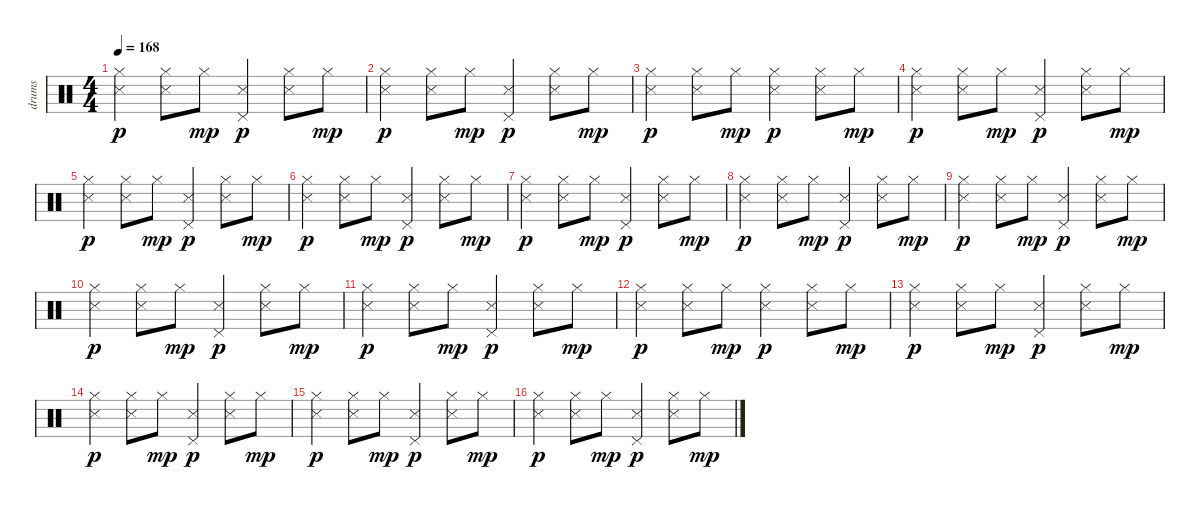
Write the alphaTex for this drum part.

\track ("drums" "drums") {instrument percussion}
\staff {score}
\articulation defaults
\ts (4 4)
\tempo 168
\clef neutral
\ks c
("Hi-Hat (closed)" "Snare (side stick) 3").4{dy p} ("Hi-Hat (closed)" "Snare (side stick) 3").8 "Hi-Hat (closed)".8{dy mp} ("Pedal Hi-Hat (hit)" "Snare (side stick) 3").4{dy p} ("Hi-Hat (closed)" "Snare (side stick) 3").8 "Hi-Hat (closed)".8{dy mp} |
("Hi-Hat (closed)" "Snare (side stick) 3").4{dy p} ("Hi-Hat (closed)" "Snare (side stick) 3").8 "Hi-Hat (closed)".8{dy mp} ("Pedal Hi-Hat (hit)" "Snare (side stick) 3").4{dy p} ("Hi-Hat (closed)" "Snare (side stick) 3").8 "Hi-Hat (closed)".8{dy mp} |
("Hi-Hat (closed)" "Snare (side stick) 3").4{dy p} ("Hi-Hat (closed)" "Snare (side stick) 3").8 "Hi-Hat (closed)".8{dy mp} ("Hi-Hat (closed)" "Snare (side stick) 3").4{dy p} ("Hi-Hat (closed)" "Snare (side stick) 3").8 "Hi-Hat (closed)".8{dy mp} |
("Hi-Hat (closed)" "Snare (side stick) 3").4{dy p} ("Hi-Hat (closed)" "Snare (side stick) 3").8 "Hi-Hat (closed)".8{dy mp} ("Pedal Hi-Hat (hit)" "Snare (side stick) 3").4{dy p} ("Hi-Hat (closed)" "Snare (side stick) 3").8 "Hi-Hat (closed)".8{dy mp} |
("Hi-Hat (closed)" "Snare (side stick) 3").4{dy p} ("Hi-Hat (closed)" "Snare (side stick) 3").8 "Hi-Hat (closed)".8{dy mp} ("Pedal Hi-Hat (hit)" "Snare (side stick) 3").4{dy p} ("Hi-Hat (closed)" "Snare (side stick) 3").8 "Hi-Hat (closed)".8{dy mp} |
("Hi-Hat (closed)" "Snare (side stick) 3").4{dy p} ("Hi-Hat (closed)" "Snare (side stick) 3").8 "Hi-Hat (closed)".8{dy mp} ("Pedal Hi-Hat (hit)" "Snare (side stick) 3").4{dy p} ("Hi-Hat (closed)" "Snare (side stick) 3").8 "Hi-Hat (closed)".8{dy mp} |
("Hi-Hat (closed)" "Snare (side stick) 3").4{dy p} ("Hi-Hat (closed)" "Snare (side stick) 3").8 "Hi-Hat (closed)".8{dy mp} ("Pedal Hi-Hat (hit)" "Snare (side stick) 3").4{dy p} ("Hi-Hat (closed)" "Snare (side stick) 3").8 "Hi-Hat (closed)".8{dy mp} |
("Hi-Hat (closed)" "Snare (side stick) 3").4{dy p} ("Hi-Hat (closed)" "Snare (side stick) 3").8 "Hi-Hat (closed)".8{dy mp} ("Pedal Hi-Hat (hit)" "Snare (side stick) 3").4{dy p} ("Hi-Hat (closed)" "Snare (side stick) 3").8 "Hi-Hat (closed)".8{dy mp} |
("Hi-Hat (closed)" "Snare (side stick) 3").4{dy p} ("Hi-Hat (closed)" "Snare (side stick) 3").8 "Hi-Hat (closed)".8{dy mp} ("Pedal Hi-Hat (hit)" "Snare (side stick) 3").4{dy p} ("Hi-Hat (closed)" "Snare (side stick) 3").8 "Hi-Hat (closed)".8{dy mp} |
("Hi-Hat (closed)" "Snare (side stick) 3").4{dy p} ("Hi-Hat (closed)" "Snare (side stick) 3").8 "Hi-Hat (closed)".8{dy mp} ("Pedal Hi-Hat (hit)" "Snare (side stick) 3").4{dy p} ("Hi-Hat (closed)" "Snare (side stick) 3").8 "Hi-Hat (closed)".8{dy mp} |
("Hi-Hat (closed)" "Snare (side stick) 3").4{dy p} ("Hi-Hat (closed)" "Snare (side stick) 3").8 "Hi-Hat (closed)".8{dy mp} ("Pedal Hi-Hat (hit)" "Snare (side stick) 3").4{dy p} ("Hi-Hat (closed)" "Snare (side stick) 3").8 "Hi-Hat (closed)".8{dy mp} |
("Hi-Hat (closed)" "Snare (side stick) 3").4{dy p} ("Hi-Hat (closed)" "Snare (side stick) 3").8 "Hi-Hat (closed)".8{dy mp} ("Hi-Hat (closed)" "Snare (side stick) 3").4{dy p} ("Hi-Hat (closed)" "Snare (side stick) 3").8 "Hi-Hat (closed)".8{dy mp} |
("Hi-Hat (closed)" "Snare (side stick) 3").4{dy p} ("Hi-Hat (closed)" "Snare (side stick) 3").8 "Hi-Hat (closed)".8{dy mp} ("Pedal Hi-Hat (hit)" "Snare (side stick) 3").4{dy p} ("Hi-Hat (closed)" "Snare (side stick) 3").8 "Hi-Hat (closed)".8{dy mp} |
("Hi-Hat (closed)" "Snare (side stick) 3").4{dy p} ("Hi-Hat (closed)" "Snare (side stick) 3").8 "Hi-Hat (closed)".8{dy mp} ("Pedal Hi-Hat (hit)" "Snare (side stick) 3").4{dy p} ("Hi-Hat (closed)" "Snare (side stick) 3").8 "Hi-Hat (closed)".8{dy mp} |
("Hi-Hat (closed)" "Snare (side stick) 3").4{dy p} ("Hi-Hat (closed)" "Snare (side stick) 3").8 "Hi-Hat (closed)".8{dy mp} ("Pedal Hi-Hat (hit)" "Snare (side stick) 3").4{dy p} ("Hi-Hat (closed)" "Snare (side stick) 3").8 "Hi-Hat (closed)".8{dy mp} |
("Hi-Hat (closed)" "Snare (side stick) 3").4{dy p} ("Hi-Hat (closed)" "Snare (side stick) 3").8 "Hi-Hat (closed)".8{dy mp} ("Pedal Hi-Hat (hit)" "Snare (side stick) 3").4{dy p} ("Hi-Hat (closed)" "Snare (side stick) 3").8 "Hi-Hat (closed)".8{dy mp}
